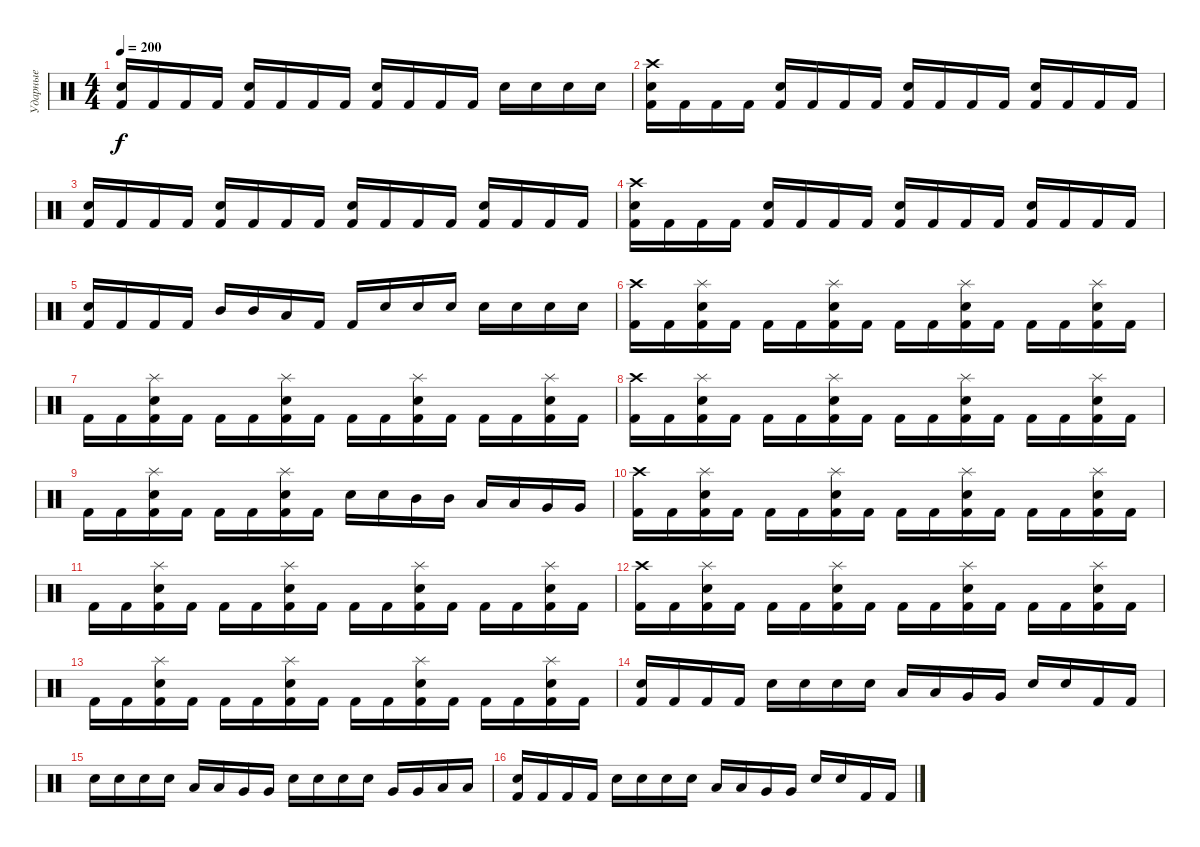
\track ("Ударные" "Ударные") {instrument percussion}
\staff {score}
\articulation defaults
\ts (4 4)
\tempo 200
\clef neutral
\ks c
("Snare (hit) 2" "Kick (hit) 2").16{dy f} "Kick (hit) 2".16 "Kick (hit) 2".16 "Kick (hit) 2".16 ("Snare (hit) 2" "Kick (hit) 2").16 "Kick (hit) 2".16 "Kick (hit) 2".16 "Kick (hit) 2".16 ("Snare (hit) 2" "Kick (hit) 2").16 "Kick (hit) 2".16 "Kick (hit) 2".16 "Kick (hit) 2".16 "Snare (hit) 2".16 "Snare (hit) 2".16 "Snare (hit) 2".16 "Snare (hit) 2".16 |
("Crash high (hit)" "Snare (hit) 2" "Kick (hit) 2").16 "Kick (hit) 2".16 "Kick (hit) 2".16 "Kick (hit) 2".16 ("Snare (hit) 2" "Kick (hit) 2").16 "Kick (hit) 2".16 "Kick (hit) 2".16 "Kick (hit) 2".16 ("Snare (hit) 2" "Kick (hit) 2").16 "Kick (hit) 2".16 "Kick (hit) 2".16 "Kick (hit) 2".16 ("Snare (hit) 2" "Kick (hit) 2").16 "Kick (hit) 2".16 "Kick (hit) 2".16 "Kick (hit) 2".16 |
("Snare (hit) 2" "Kick (hit) 2").16 "Kick (hit) 2".16 "Kick (hit) 2".16 "Kick (hit) 2".16 ("Snare (hit) 2" "Kick (hit) 2").16 "Kick (hit) 2".16 "Kick (hit) 2".16 "Kick (hit) 2".16 ("Snare (hit) 2" "Kick (hit) 2").16 "Kick (hit) 2".16 "Kick (hit) 2".16 "Kick (hit) 2".16 ("Snare (hit) 2" "Kick (hit) 2").16 "Kick (hit) 2".16 "Kick (hit) 2".16 "Kick (hit) 2".16 |
("Crash high (hit)" "Snare (hit) 2" "Kick (hit) 2").16 "Kick (hit) 2".16 "Kick (hit) 2".16 "Kick (hit) 2".16 ("Snare (hit) 2" "Kick (hit) 2").16 "Kick (hit) 2".16 "Kick (hit) 2".16 "Kick (hit) 2".16 ("Snare (hit) 2" "Kick (hit) 2").16 "Kick (hit) 2".16 "Kick (hit) 2".16 "Kick (hit) 2".16 ("Snare (hit) 2" "Kick (hit) 2").16 "Kick (hit) 2".16 "Kick (hit) 2".16 "Kick (hit) 2".16 |
("Snare (hit) 2" "Kick (hit) 2").16 "Kick (hit) 2".16 "Kick (hit) 2".16 "Kick (hit) 2".16 "Mid Tom (hit)".16 "Mid Tom (hit)".16 "Low Tom (hit)".16 "Kick (hit) 2".16 "Kick (hit) 2".16 "Snare (hit) 2".16 "Snare (hit) 2".16 "Snare (hit) 2".16 "Snare (hit) 2".16 "Snare (hit) 2".16 "Snare (hit) 2".16 "Snare (hit) 2".16 |
("Crash high (hit)" "Kick (hit) 2").16 "Kick (hit) 2".16 ("Splash (hit)" "Snare (hit) 2" "Kick (hit) 2").16 "Kick (hit) 2".16 "Kick (hit) 2".16 "Kick (hit) 2".16 ("Splash (hit)" "Snare (hit) 2" "Kick (hit) 2").16 "Kick (hit) 2".16 "Kick (hit) 2".16 "Kick (hit) 2".16 ("Splash (hit)" "Snare (hit) 2" "Kick (hit) 2").16 "Kick (hit) 2".16 "Kick (hit) 2".16 "Kick (hit) 2".16 ("Splash (hit)" "Snare (hit) 2" "Kick (hit) 2").16 "Kick (hit) 2".16 |
"Kick (hit) 2".16 "Kick (hit) 2".16 ("Splash (hit)" "Snare (hit) 2" "Kick (hit) 2").16 "Kick (hit) 2".16 "Kick (hit) 2".16 "Kick (hit) 2".16 ("Splash (hit)" "Snare (hit) 2" "Kick (hit) 2").16 "Kick (hit) 2".16 "Kick (hit) 2".16 "Kick (hit) 2".16 ("Splash (hit)" "Snare (hit) 2" "Kick (hit) 2").16 "Kick (hit) 2".16 "Kick (hit) 2".16 "Kick (hit) 2".16 ("Splash (hit)" "Snare (hit) 2" "Kick (hit) 2").16 "Kick (hit) 2".16 |
("Crash high (hit)" "Kick (hit) 2").16 "Kick (hit) 2".16 ("Splash (hit)" "Snare (hit) 2" "Kick (hit) 2").16 "Kick (hit) 2".16 "Kick (hit) 2".16 "Kick (hit) 2".16 ("Splash (hit)" "Snare (hit) 2" "Kick (hit) 2").16 "Kick (hit) 2".16 "Kick (hit) 2".16 "Kick (hit) 2".16 ("Splash (hit)" "Snare (hit) 2" "Kick (hit) 2").16 "Kick (hit) 2".16 "Kick (hit) 2".16 "Kick (hit) 2".16 ("Splash (hit)" "Snare (hit) 2" "Kick (hit) 2").16 "Kick (hit) 2".16 |
"Kick (hit) 2".16 "Kick (hit) 2".16 ("Splash (hit)" "Snare (hit) 2" "Kick (hit) 2").16 "Kick (hit) 2".16 "Kick (hit) 2".16 "Kick (hit) 2".16 ("Splash (hit)" "Snare (hit) 2" "Kick (hit) 2").16 "Kick (hit) 2".16 "Snare (hit) 2".16 "Snare (hit) 2".16 "Mid Tom (hit)".16 "Mid Tom (hit)".16 "Low Tom (hit)".16 "Low Tom (hit)".16 "Very Low Tom (hit)".16 "Very Low Tom (hit)".16 |
("Crash high (hit)" "Kick (hit) 2").16 "Kick (hit) 2".16 ("Splash (hit)" "Snare (hit) 2" "Kick (hit) 2").16 "Kick (hit) 2".16 "Kick (hit) 2".16 "Kick (hit) 2".16 ("Splash (hit)" "Snare (hit) 2" "Kick (hit) 2").16 "Kick (hit) 2".16 "Kick (hit) 2".16 "Kick (hit) 2".16 ("Splash (hit)" "Snare (hit) 2" "Kick (hit) 2").16 "Kick (hit) 2".16 "Kick (hit) 2".16 "Kick (hit) 2".16 ("Splash (hit)" "Snare (hit) 2" "Kick (hit) 2").16 "Kick (hit) 2".16 |
"Kick (hit) 2".16 "Kick (hit) 2".16 ("Splash (hit)" "Snare (hit) 2" "Kick (hit) 2").16 "Kick (hit) 2".16 "Kick (hit) 2".16 "Kick (hit) 2".16 ("Splash (hit)" "Snare (hit) 2" "Kick (hit) 2").16 "Kick (hit) 2".16 "Kick (hit) 2".16 "Kick (hit) 2".16 ("Splash (hit)" "Snare (hit) 2" "Kick (hit) 2").16 "Kick (hit) 2".16 "Kick (hit) 2".16 "Kick (hit) 2".16 ("Splash (hit)" "Snare (hit) 2" "Kick (hit) 2").16 "Kick (hit) 2".16 |
("Crash high (hit)" "Kick (hit) 2").16 "Kick (hit) 2".16 ("Splash (hit)" "Snare (hit) 2" "Kick (hit) 2").16 "Kick (hit) 2".16 "Kick (hit) 2".16 "Kick (hit) 2".16 ("Splash (hit)" "Snare (hit) 2" "Kick (hit) 2").16 "Kick (hit) 2".16 "Kick (hit) 2".16 "Kick (hit) 2".16 ("Splash (hit)" "Snare (hit) 2" "Kick (hit) 2").16 "Kick (hit) 2".16 "Kick (hit) 2".16 "Kick (hit) 2".16 ("Splash (hit)" "Snare (hit) 2" "Kick (hit) 2").16 "Kick (hit) 2".16 |
"Kick (hit) 2".16 "Kick (hit) 2".16 ("Splash (hit)" "Snare (hit) 2" "Kick (hit) 2").16 "Kick (hit) 2".16 "Kick (hit) 2".16 "Kick (hit) 2".16 ("Splash (hit)" "Snare (hit) 2" "Kick (hit) 2").16 "Kick (hit) 2".16 "Kick (hit) 2".16 "Kick (hit) 2".16 ("Splash (hit)" "Snare (hit) 2" "Kick (hit) 2").16 "Kick (hit) 2".16 "Kick (hit) 2".16 "Kick (hit) 2".16 ("Splash (hit)" "Snare (hit) 2" "Kick (hit) 2").16 "Kick (hit) 2".16 |
("Snare (hit) 2" "Kick (hit) 2").16 "Kick (hit) 2".16 "Kick (hit) 2".16 "Kick (hit) 2".16 "Snare (hit) 2".16 "Snare (hit) 2".16 "Snare (hit) 2".16 "Snare (hit) 2".16 "Low Tom (hit)".16 "Low Tom (hit)".16 "Very Low Tom (hit)".16 "Very Low Tom (hit)".16 "Snare (hit) 2".16 "Snare (hit) 2".16 "Kick (hit) 2".16 "Kick (hit) 2".16 |
"Snare (hit) 2".16 "Snare (hit) 2".16 "Snare (hit) 2".16 "Snare (hit) 2".16 "Low Tom (hit)".16 "Low Tom (hit)".16 "Very Low Tom (hit)".16 "Very Low Tom (hit)".16 "Snare (hit) 2".16 "Snare (hit) 2".16 "Snare (hit) 2".16 "Snare (hit) 2".16 "Very Low Tom (hit)".16 "Very Low Tom (hit)".16 "Low Floor Tom (hit)".16 "Low Floor Tom (hit)".16 |
("Snare (hit) 2" "Kick (hit) 2").16 "Kick (hit) 2".16 "Kick (hit) 2".16 "Kick (hit) 2".16 "Snare (hit) 2".16 "Snare (hit) 2".16 "Snare (hit) 2".16 "Snare (hit) 2".16 "Low Tom (hit)".16 "Low Tom (hit)".16 "Very Low Tom (hit)".16 "Very Low Tom (hit)".16 "Snare (hit) 2".16 "Snare (hit) 2".16 "Kick (hit) 2".16 "Kick (hit) 2".16
